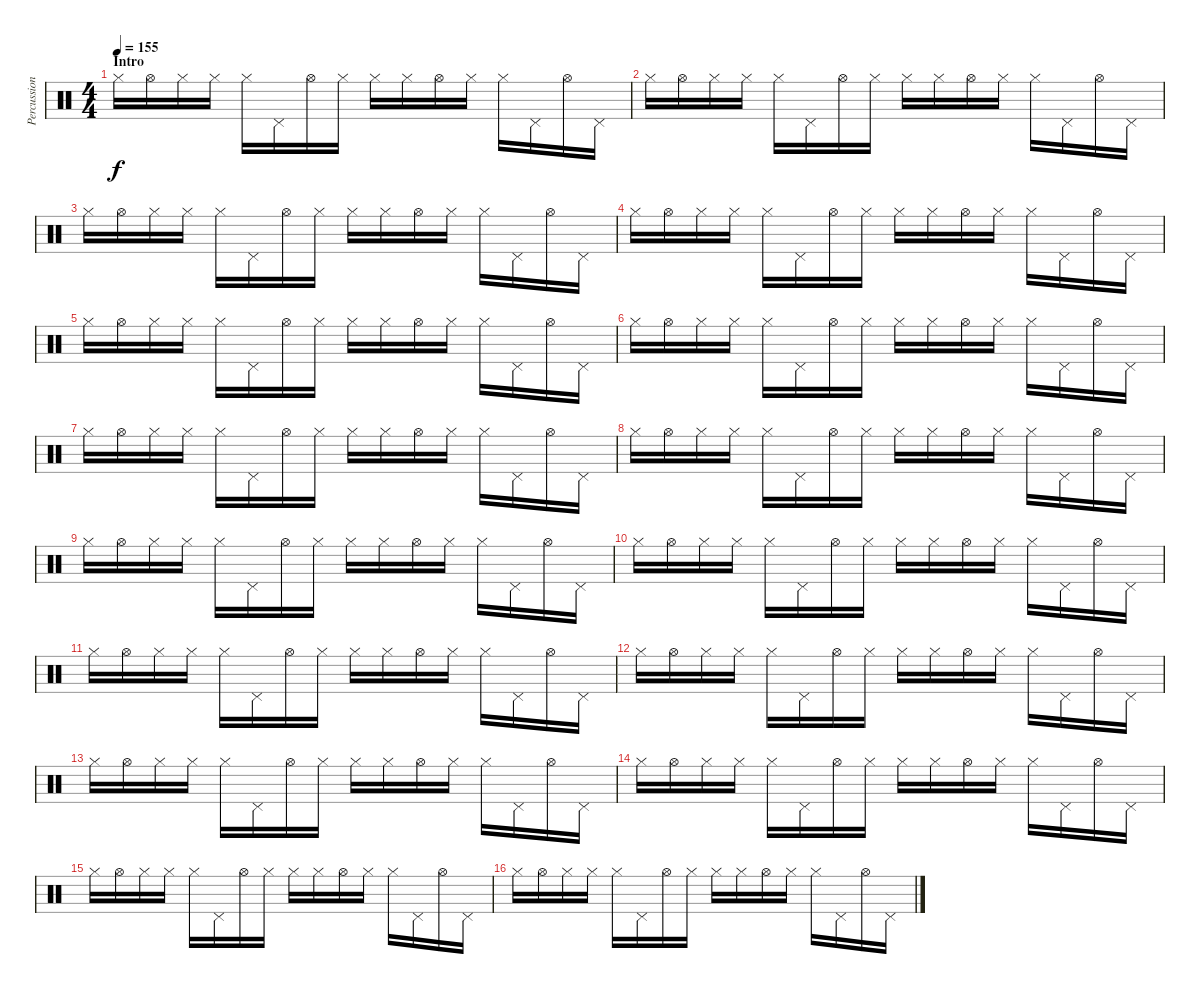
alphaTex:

\track ("Percussion" "Percussion") {instrument percussion}
\staff {score}
\articulation defaults
\ts (4 4)
\section ("" "Intro")
\tempo 155
\clef neutral
\ks c "Hi-Hat (closed)".16{dy f} "Hi-Hat (open)".16 "Hi-Hat (closed)".16 "Hi-Hat (closed)".16 "Hi-Hat (closed)".16 "Pedal Hi-Hat (hit)".16 "Hi-Hat (open)".16 "Hi-Hat (closed)".16 "Hi-Hat (closed)".16 "Hi-Hat (closed)".16 "Hi-Hat (open)".16 "Hi-Hat (closed)".16 "Hi-Hat (closed)".16 "Pedal Hi-Hat (hit)".16 "Hi-Hat (open)".16 "Pedal Hi-Hat (hit)".16
|
"Hi-Hat (closed)".16 "Hi-Hat (open)".16 "Hi-Hat (closed)".16 "Hi-Hat (closed)".16 "Hi-Hat (closed)".16 "Pedal Hi-Hat (hit)".16 "Hi-Hat (open)".16 "Hi-Hat (closed)".16 "Hi-Hat (closed)".16 "Hi-Hat (closed)".16 "Hi-Hat (open)".16 "Hi-Hat (closed)".16 "Hi-Hat (closed)".16 "Pedal Hi-Hat (hit)".16 "Hi-Hat (open)".16 "Pedal Hi-Hat (hit)".16 |
"Hi-Hat (closed)".16 "Hi-Hat (open)".16 "Hi-Hat (closed)".16 "Hi-Hat (closed)".16 "Hi-Hat (closed)".16 "Pedal Hi-Hat (hit)".16 "Hi-Hat (open)".16 "Hi-Hat (closed)".16 "Hi-Hat (closed)".16 "Hi-Hat (closed)".16 "Hi-Hat (open)".16 "Hi-Hat (closed)".16 "Hi-Hat (closed)".16 "Pedal Hi-Hat (hit)".16 "Hi-Hat (open)".16 "Pedal Hi-Hat (hit)".16 |
"Hi-Hat (closed)".16 "Hi-Hat (open)".16 "Hi-Hat (closed)".16 "Hi-Hat (closed)".16 "Hi-Hat (closed)".16 "Pedal Hi-Hat (hit)".16 "Hi-Hat (open)".16 "Hi-Hat (closed)".16 "Hi-Hat (closed)".16 "Hi-Hat (closed)".16 "Hi-Hat (open)".16 "Hi-Hat (closed)".16 "Hi-Hat (closed)".16 "Pedal Hi-Hat (hit)".16 "Hi-Hat (open)".16 "Pedal Hi-Hat (hit)".16 |
"Hi-Hat (closed)".16 "Hi-Hat (open)".16 "Hi-Hat (closed)".16 "Hi-Hat (closed)".16 "Hi-Hat (closed)".16 "Pedal Hi-Hat (hit)".16 "Hi-Hat (open)".16 "Hi-Hat (closed)".16 "Hi-Hat (closed)".16 "Hi-Hat (closed)".16 "Hi-Hat (open)".16 "Hi-Hat (closed)".16 "Hi-Hat (closed)".16 "Pedal Hi-Hat (hit)".16 "Hi-Hat (open)".16 "Pedal Hi-Hat (hit)".16 |
"Hi-Hat (closed)".16 "Hi-Hat (open)".16 "Hi-Hat (closed)".16 "Hi-Hat (closed)".16 "Hi-Hat (closed)".16 "Pedal Hi-Hat (hit)".16 "Hi-Hat (open)".16 "Hi-Hat (closed)".16 "Hi-Hat (closed)".16 "Hi-Hat (closed)".16 "Hi-Hat (open)".16 "Hi-Hat (closed)".16 "Hi-Hat (closed)".16 "Pedal Hi-Hat (hit)".16 "Hi-Hat (open)".16 "Pedal Hi-Hat (hit)".16 |
"Hi-Hat (closed)".16 "Hi-Hat (open)".16 "Hi-Hat (closed)".16 "Hi-Hat (closed)".16 "Hi-Hat (closed)".16 "Pedal Hi-Hat (hit)".16 "Hi-Hat (open)".16 "Hi-Hat (closed)".16 "Hi-Hat (closed)".16 "Hi-Hat (closed)".16 "Hi-Hat (open)".16 "Hi-Hat (closed)".16 "Hi-Hat (closed)".16 "Pedal Hi-Hat (hit)".16 "Hi-Hat (open)".16 "Pedal Hi-Hat (hit)".16 |
"Hi-Hat (closed)".16 "Hi-Hat (open)".16 "Hi-Hat (closed)".16 "Hi-Hat (closed)".16 "Hi-Hat (closed)".16 "Pedal Hi-Hat (hit)".16 "Hi-Hat (open)".16 "Hi-Hat (closed)".16 "Hi-Hat (closed)".16 "Hi-Hat (closed)".16 "Hi-Hat (open)".16 "Hi-Hat (closed)".16 "Hi-Hat (closed)".16 "Pedal Hi-Hat (hit)".16 "Hi-Hat (open)".16 "Pedal Hi-Hat (hit)".16 |
"Hi-Hat (closed)".16 "Hi-Hat (open)".16 "Hi-Hat (closed)".16 "Hi-Hat (closed)".16 "Hi-Hat (closed)".16 "Pedal Hi-Hat (hit)".16 "Hi-Hat (open)".16 "Hi-Hat (closed)".16 "Hi-Hat (closed)".16 "Hi-Hat (closed)".16 "Hi-Hat (open)".16 "Hi-Hat (closed)".16 "Hi-Hat (closed)".16 "Pedal Hi-Hat (hit)".16 "Hi-Hat (open)".16 "Pedal Hi-Hat (hit)".16 |
"Hi-Hat (closed)".16 "Hi-Hat (open)".16 "Hi-Hat (closed)".16 "Hi-Hat (closed)".16 "Hi-Hat (closed)".16 "Pedal Hi-Hat (hit)".16 "Hi-Hat (open)".16 "Hi-Hat (closed)".16 "Hi-Hat (closed)".16 "Hi-Hat (closed)".16 "Hi-Hat (open)".16 "Hi-Hat (closed)".16 "Hi-Hat (closed)".16 "Pedal Hi-Hat (hit)".16 "Hi-Hat (open)".16 "Pedal Hi-Hat (hit)".16 |
"Hi-Hat (closed)".16 "Hi-Hat (open)".16 "Hi-Hat (closed)".16 "Hi-Hat (closed)".16 "Hi-Hat (closed)".16 "Pedal Hi-Hat (hit)".16 "Hi-Hat (open)".16 "Hi-Hat (closed)".16 "Hi-Hat (closed)".16 "Hi-Hat (closed)".16 "Hi-Hat (open)".16 "Hi-Hat (closed)".16 "Hi-Hat (closed)".16 "Pedal Hi-Hat (hit)".16 "Hi-Hat (open)".16 "Pedal Hi-Hat (hit)".16 |
"Hi-Hat (closed)".16 "Hi-Hat (open)".16 "Hi-Hat (closed)".16 "Hi-Hat (closed)".16 "Hi-Hat (closed)".16 "Pedal Hi-Hat (hit)".16 "Hi-Hat (open)".16 "Hi-Hat (closed)".16 "Hi-Hat (closed)".16 "Hi-Hat (closed)".16 "Hi-Hat (open)".16 "Hi-Hat (closed)".16 "Hi-Hat (closed)".16 "Pedal Hi-Hat (hit)".16 "Hi-Hat (open)".16 "Pedal Hi-Hat (hit)".16 |
"Hi-Hat (closed)".16 "Hi-Hat (open)".16 "Hi-Hat (closed)".16 "Hi-Hat (closed)".16 "Hi-Hat (closed)".16 "Pedal Hi-Hat (hit)".16 "Hi-Hat (open)".16 "Hi-Hat (closed)".16 "Hi-Hat (closed)".16 "Hi-Hat (closed)".16 "Hi-Hat (open)".16 "Hi-Hat (closed)".16 "Hi-Hat (closed)".16 "Pedal Hi-Hat (hit)".16 "Hi-Hat (open)".16 "Pedal Hi-Hat (hit)".16 |
"Hi-Hat (closed)".16 "Hi-Hat (open)".16 "Hi-Hat (closed)".16 "Hi-Hat (closed)".16 "Hi-Hat (closed)".16 "Pedal Hi-Hat (hit)".16 "Hi-Hat (open)".16 "Hi-Hat (closed)".16 "Hi-Hat (closed)".16 "Hi-Hat (closed)".16 "Hi-Hat (open)".16 "Hi-Hat (closed)".16 "Hi-Hat (closed)".16 "Pedal Hi-Hat (hit)".16 "Hi-Hat (open)".16 "Pedal Hi-Hat (hit)".16 |
"Hi-Hat (closed)".16 "Hi-Hat (open)".16 "Hi-Hat (closed)".16 "Hi-Hat (closed)".16 "Hi-Hat (closed)".16 "Pedal Hi-Hat (hit)".16 "Hi-Hat (open)".16 "Hi-Hat (closed)".16 "Hi-Hat (closed)".16 "Hi-Hat (closed)".16 "Hi-Hat (open)".16 "Hi-Hat (closed)".16 "Hi-Hat (closed)".16 "Pedal Hi-Hat (hit)".16 "Hi-Hat (open)".16 "Pedal Hi-Hat (hit)".16 |
"Hi-Hat (closed)".16 "Hi-Hat (open)".16 "Hi-Hat (closed)".16 "Hi-Hat (closed)".16 "Hi-Hat (closed)".16 "Pedal Hi-Hat (hit)".16 "Hi-Hat (open)".16 "Hi-Hat (closed)".16 "Hi-Hat (closed)".16 "Hi-Hat (closed)".16 "Hi-Hat (open)".16 "Hi-Hat (closed)".16 "Hi-Hat (closed)".16 "Pedal Hi-Hat (hit)".16 "Hi-Hat (open)".16 "Pedal Hi-Hat (hit)".16
